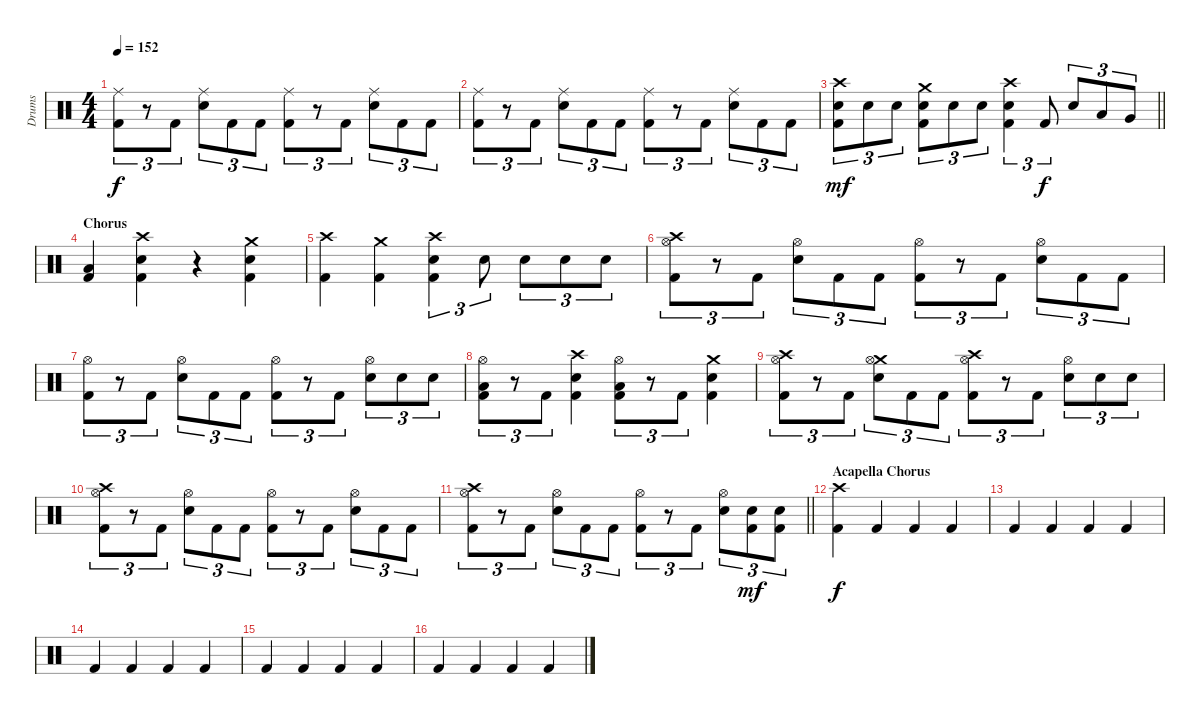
\track ("Drums" "Drums") {instrument percussion}
\staff {score}
\articulation defaults
\ts (4 4)
\tempo 152
\clef neutral
\ks c
("Ride (middle)" "Kick (hit) 2").8{tu (3 2) dy f} r.8{tu (3 2)} "Kick (hit) 2".8{tu (3 2)} ("Ride (middle)" "Snare (hit) 2").8{tu (3 2)} "Kick (hit) 2".8{tu (3 2)} "Kick (hit) 2".8{tu (3 2)} ("Ride (middle)" "Kick (hit) 2").8{tu (3 2)} r.8{tu (3 2)} "Kick (hit) 2".8{tu (3 2)} ("Ride (middle)" "Snare (hit) 2").8{tu (3 2)} "Kick (hit) 2".8{tu (3 2)} "Kick (hit) 2".8{tu (3 2)} |
("Ride (middle)" "Kick (hit) 2").8{tu (3 2)} r.8{tu (3 2)} "Kick (hit) 2".8{tu (3 2)} ("Ride (middle)" "Snare (hit) 2").8{tu (3 2)} "Kick (hit) 2".8{tu (3 2)} "Kick (hit) 2".8{tu (3 2)} ("Ride (middle)" "Kick (hit) 2").8{tu (3 2)} r.8{tu (3 2)} "Kick (hit) 2".8{tu (3 2)} ("Ride (middle)" "Snare (hit) 2").8{tu (3 2)} "Kick (hit) 2".8{tu (3 2)} "Kick (hit) 2".8{tu (3 2)} |
\barLineRight lightlight
("Crash high (hit)" "Snare (hit) 2" "Kick (hit) 2").8{tu (3 2) dy mf} "Snare (hit) 2".8{tu (3 2)} "Snare (hit) 2".8{tu (3 2)} ("Crash medium (hit)" "Snare (hit) 2" "Kick (hit) 2").8{tu (3 2)} "Snare (hit) 2".8{tu (3 2)} "Snare (hit) 2".8{tu (3 2)} ("Crash high (hit)" "Snare (hit) 2" "Kick (hit) 2").4{tu (3 2)} "Kick (hit) 2".8{tu (3 2) dy f} "Snare (hit) 2".8{tu (3 2)} "Low Tom (hit)".8{tu (3 2)} "Very Low Tom (hit)".8{tu (3 2)} |
\section ("" "Chorus")
("Low Floor Tom (hit)" "Kick (hit) 2").4 ("Crash high (hit)" "Snare (hit) 2" "Kick (hit) 2").4 r.4 ("Crash medium (hit)" "Snare (hit) 2" "Kick (hit) 2").4 |
("Crash high (hit)" "Kick (hit) 2").4 ("Crash medium (hit)" "Kick (hit) 2").4 ("Crash high (hit)" "Snare (hit) 2" "Kick (hit) 2").4{tu (3 2)} "Snare (hit) 2".8{tu (3 2)} "Snare (hit) 2".8{tu (3 2)} "Snare (hit) 2".8{tu (3 2)} "Snare (hit) 2".8{tu (3 2)} |
("Crash high (hit)" "Hi-Hat (open)" "Kick (hit) 2").8{tu (3 2)} r.8{tu (3 2)} "Kick (hit) 2".8{tu (3 2)} ("Hi-Hat (open)" "Snare (hit) 2").8{tu (3 2)} "Kick (hit) 2".8{tu (3 2)} "Kick (hit) 2".8{tu (3 2)} ("Hi-Hat (open)" "Kick (hit) 2").8{tu (3 2)} r.8{tu (3 2)} "Kick (hit) 2".8{tu (3 2)} ("Hi-Hat (open)" "Snare (hit) 2").8{tu (3 2)} "Kick (hit) 2".8{tu (3 2)} "Kick (hit) 2".8{tu (3 2)} |
("Hi-Hat (open)" "Kick (hit) 2").8{tu (3 2)} r.8{tu (3 2)} "Kick (hit) 2".8{tu (3 2)} ("Hi-Hat (open)" "Snare (hit) 2").8{tu (3 2)} "Kick (hit) 2".8{tu (3 2)} "Kick (hit) 2".8{tu (3 2)} ("Hi-Hat (open)" "Kick (hit) 2").8{tu (3 2)} r.8{tu (3 2)} "Kick (hit) 2".8{tu (3 2)} ("Hi-Hat (open)" "Snare (hit) 2").8{tu (3 2)} "Snare (hit) 2".8{tu (3 2)} "Snare (hit) 2".8{tu (3 2)} |
("Hi-Hat (open)" "Low Floor Tom (hit)" "Kick (hit) 2").8{tu (3 2)} r.8{tu (3 2)} "Kick (hit) 2".8{tu (3 2)} ("Crash high (hit)" "Snare (hit) 2" "Kick (hit) 2").4 ("Hi-Hat (open)" "Low Floor Tom (hit)" "Kick (hit) 2").8{tu (3 2)} r.8{tu (3 2)} "Kick (hit) 2".8{tu (3 2)} ("Crash medium (hit)" "Snare (hit) 2" "Kick (hit) 2").4 |
("Crash high (hit)" "Hi-Hat (open)" "Kick (hit) 2").8{tu (3 2)} r.8{tu (3 2)} "Kick (hit) 2".8{tu (3 2)} ("Crash medium (hit)" "Hi-Hat (open)" "Snare (hit) 2").8{tu (3 2)} "Kick (hit) 2".8{tu (3 2)} "Kick (hit) 2".8{tu (3 2)} ("Crash high (hit)" "Hi-Hat (open)" "Kick (hit) 2").8{tu (3 2)} r.8{tu (3 2)} "Kick (hit) 2".8{tu (3 2)} ("Hi-Hat (open)" "Snare (hit) 2").8{tu (3 2)} "Snare (hit) 2".8{tu (3 2)} "Snare (hit) 2".8{tu (3 2)} |
("Crash high (hit)" "Hi-Hat (open)" "Kick (hit) 2").8{tu (3 2)} r.8{tu (3 2)} "Kick (hit) 2".8{tu (3 2)} ("Hi-Hat (open)" "Snare (hit) 2").8{tu (3 2)} "Kick (hit) 2".8{tu (3 2)} "Kick (hit) 2".8{tu (3 2)} ("Hi-Hat (open)" "Kick (hit) 2").8{tu (3 2)} r.8{tu (3 2)} "Kick (hit) 2".8{tu (3 2)} ("Hi-Hat (open)" "Snare (hit) 2").8{tu (3 2)} "Kick (hit) 2".8{tu (3 2)} "Kick (hit) 2".8{tu (3 2)} |
\barLineRight lightlight
("Crash high (hit)" "Hi-Hat (open)" "Kick (hit) 2").8{tu (3 2)} r.8{tu (3 2)} "Kick (hit) 2".8{tu (3 2)} ("Hi-Hat (open)" "Snare (hit) 2").8{tu (3 2)} "Kick (hit) 2".8{tu (3 2)} "Kick (hit) 2".8{tu (3 2)} ("Hi-Hat (open)" "Kick (hit) 2").8{tu (3 2)} r.8{tu (3 2)} "Kick (hit) 2".8{tu (3 2)} ("Hi-Hat (open)" "Snare (hit) 2").8{tu (3 2)} ("Snare (hit) 2" "Kick (hit) 2").8{tu (3 2) dy mf} ("Snare (hit) 2" "Kick (hit) 2").8{tu (3 2)} |
\section ("" "Acapella Chorus")
("Crash high (hit)" "Kick (hit) 2").4{dy f} "Kick (hit) 2".4 "Kick (hit) 2".4 "Kick (hit) 2".4 |
"Kick (hit) 2".4 "Kick (hit) 2".4 "Kick (hit) 2".4 "Kick (hit) 2".4 |
"Kick (hit) 2".4 "Kick (hit) 2".4 "Kick (hit) 2".4 "Kick (hit) 2".4 |
"Kick (hit) 2".4 "Kick (hit) 2".4 "Kick (hit) 2".4 "Kick (hit) 2".4 |
"Kick (hit) 2".4 "Kick (hit) 2".4 "Kick (hit) 2".4 "Kick (hit) 2".4
